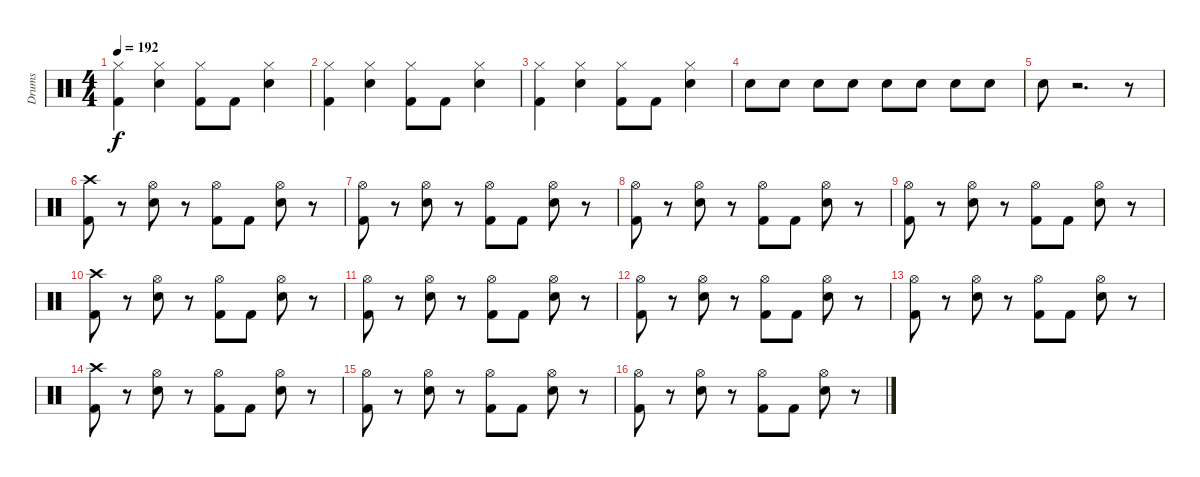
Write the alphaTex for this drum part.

\track ("Drums" "Drums") {instrument percussion}
\staff {score}
\articulation defaults
\ts (4 4)
\tempo 192
\clef neutral
\ks c
("Kick (hit) 2" "Hi-Hat (closed)").4{dy f} ("Electric Snare (hit)" "Hi-Hat (closed)").4 ("Kick (hit) 2" "Hi-Hat (closed)").8 "Kick (hit) 2".8 ("Electric Snare (hit)" "Hi-Hat (closed)").4 |
("Kick (hit) 2" "Hi-Hat (closed)").4 ("Electric Snare (hit)" "Hi-Hat (closed)").4 ("Kick (hit) 2" "Hi-Hat (closed)").8 "Kick (hit) 2".8 ("Electric Snare (hit)" "Hi-Hat (closed)").4 |
("Kick (hit) 2" "Hi-Hat (closed)").4 ("Electric Snare (hit)" "Hi-Hat (closed)").4 ("Kick (hit) 2" "Hi-Hat (closed)").8 "Kick (hit) 2".8 ("Electric Snare (hit)" "Hi-Hat (closed)").4 |
"Electric Snare (hit)".8 "Electric Snare (hit)".8 "Electric Snare (hit)".8 "Electric Snare (hit)".8 "Electric Snare (hit)".8 "Electric Snare (hit)".8 "Electric Snare (hit)".8 "Electric Snare (hit)".8 |
"Electric Snare (hit)".8 r.2{d} r.8 |
("Crash high (hit)" "Kick (hit) 2").8 r.8 ("Hi-Hat (open)" "Electric Snare (hit)").8 r.8 ("Hi-Hat (open)" "Kick (hit) 2").8 "Kick (hit) 2".8 ("Hi-Hat (open)" "Electric Snare (hit)").8 r.8 |
("Hi-Hat (open)" "Kick (hit) 2").8 r.8 ("Hi-Hat (open)" "Electric Snare (hit)").8 r.8 ("Hi-Hat (open)" "Kick (hit) 2").8 "Kick (hit) 2".8 ("Hi-Hat (open)" "Electric Snare (hit)").8 r.8 |
("Hi-Hat (open)" "Kick (hit) 2").8 r.8 ("Hi-Hat (open)" "Electric Snare (hit)").8 r.8 ("Hi-Hat (open)" "Kick (hit) 2").8 "Kick (hit) 2".8 ("Hi-Hat (open)" "Electric Snare (hit)").8 r.8 |
("Hi-Hat (open)" "Kick (hit) 2").8 r.8 ("Hi-Hat (open)" "Electric Snare (hit)").8 r.8 ("Hi-Hat (open)" "Kick (hit) 2").8 "Kick (hit) 2".8 ("Hi-Hat (open)" "Electric Snare (hit)").8 r.8 |
("Crash high (hit)" "Kick (hit) 2").8 r.8 ("Hi-Hat (open)" "Electric Snare (hit)").8 r.8 ("Hi-Hat (open)" "Kick (hit) 2").8 "Kick (hit) 2".8 ("Hi-Hat (open)" "Electric Snare (hit)").8 r.8 |
("Hi-Hat (open)" "Kick (hit) 2").8 r.8 ("Hi-Hat (open)" "Electric Snare (hit)").8 r.8 ("Hi-Hat (open)" "Kick (hit) 2").8 "Kick (hit) 2".8 ("Hi-Hat (open)" "Electric Snare (hit)").8 r.8 |
("Hi-Hat (open)" "Kick (hit) 2").8 r.8 ("Hi-Hat (open)" "Electric Snare (hit)").8 r.8 ("Hi-Hat (open)" "Kick (hit) 2").8 "Kick (hit) 2".8 ("Hi-Hat (open)" "Electric Snare (hit)").8 r.8 |
("Hi-Hat (open)" "Kick (hit) 2").8 r.8 ("Hi-Hat (open)" "Electric Snare (hit)").8 r.8 ("Hi-Hat (open)" "Kick (hit) 2").8 "Kick (hit) 2".8 ("Hi-Hat (open)" "Electric Snare (hit)").8 r.8 |
("Crash high (hit)" "Kick (hit) 2").8 r.8 ("Hi-Hat (open)" "Electric Snare (hit)").8 r.8 ("Hi-Hat (open)" "Kick (hit) 2").8 "Kick (hit) 2".8 ("Hi-Hat (open)" "Electric Snare (hit)").8 r.8 |
("Hi-Hat (open)" "Kick (hit) 2").8 r.8 ("Hi-Hat (open)" "Electric Snare (hit)").8 r.8 ("Hi-Hat (open)" "Kick (hit) 2").8 "Kick (hit) 2".8 ("Hi-Hat (open)" "Electric Snare (hit)").8 r.8 |
("Hi-Hat (open)" "Kick (hit) 2").8 r.8 ("Hi-Hat (open)" "Electric Snare (hit)").8 r.8 ("Hi-Hat (open)" "Kick (hit) 2").8 "Kick (hit) 2".8 ("Hi-Hat (open)" "Electric Snare (hit)").8 r.8
